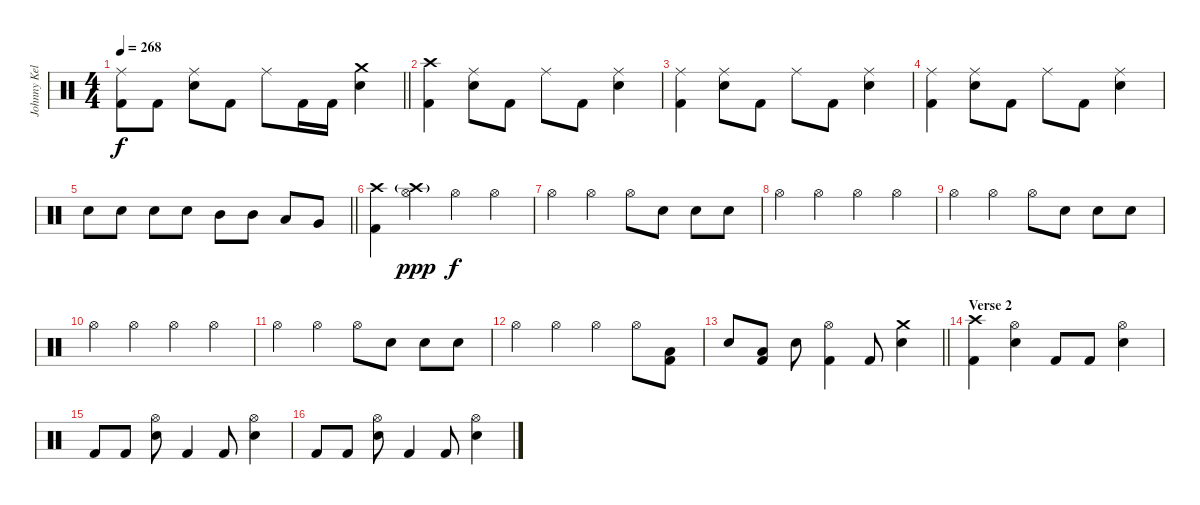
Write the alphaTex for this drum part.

\track ("Johnny Kelly" "Johnny Kel") {instrument percussion}
\staff {score}
\articulation defaults
\ts (4 4)
\tempo 268
\clef neutral
\barLineRight lightlight
\ks c
("Ride (middle)" "Kick (hit) 2").8{dy f} "Kick (hit) 2".8 ("Ride (middle)" "Electric Snare (hit)").8 "Kick (hit) 2".8 "Ride (middle)".8 "Kick (hit) 2".16 "Kick (hit) 2".16 ("Crash medium (hit)" "Electric Snare (hit)").4 |
("Crash high (hit)" "Kick (hit) 2").4 ("Ride (middle)" "Electric Snare (hit)").8 "Kick (hit) 2".8 "Ride (middle)".8 "Kick (hit) 2".8 ("Ride (middle)" "Electric Snare (hit)").4 |
("Ride (middle)" "Kick (hit) 2").4 ("Ride (middle)" "Electric Snare (hit)").8 "Kick (hit) 2".8 "Ride (middle)".8 "Kick (hit) 2".8 ("Ride (middle)" "Electric Snare (hit)").4 |
("Ride (middle)" "Kick (hit) 2").4 ("Ride (middle)" "Electric Snare (hit)").8 "Kick (hit) 2".8 "Ride (middle)".8 "Kick (hit) 2".8 ("Ride (middle)" "Electric Snare (hit)").4 |
\barLineRight lightlight "Electric Snare (hit)".8 "Electric Snare (hit)".8 "Electric Snare (hit)".8 "Electric Snare (hit)".8 "Mid Tom (hit)".8 "Mid Tom (hit)".8 "Low Tom (hit)".8 "Very Low Tom (hit)".8
|
\section ("" "")
("Crash high (hit)" "Kick (hit) 2").4 ("Hi-Hat (open)" "Crash high (hit)"{g}).4{dy ppp} "Hi-Hat (open)".4{dy f} "Hi-Hat (open)".4 |
"Hi-Hat (open)".4 "Hi-Hat (open)".4 "Hi-Hat (open)".8 "Electric Snare (hit)".8 "Electric Snare (hit)".8 "Electric Snare (hit)".8 |
"Hi-Hat (open)".4 "Hi-Hat (open)".4 "Hi-Hat (open)".4 "Hi-Hat (open)".4 |
"Hi-Hat (open)".4 "Hi-Hat (open)".4 "Hi-Hat (open)".8 "Electric Snare (hit)".8 "Electric Snare (hit)".8 "Electric Snare (hit)".8 |
"Hi-Hat (open)".4 "Hi-Hat (open)".4 "Hi-Hat (open)".4 "Hi-Hat (open)".4 |
"Hi-Hat (open)".4 "Hi-Hat (open)".4 "Hi-Hat (open)".8 "Electric Snare (hit)".8 "Electric Snare (hit)".8 "Electric Snare (hit)".8 |
"Hi-Hat (open)".4 "Hi-Hat (open)".4 "Hi-Hat (open)".4 "Hi-Hat (open)".8 ("Low Floor Tom (hit)" "Kick (hit) 2").8 |
\barLineRight lightlight "Electric Snare (hit)".8
("Low Floor Tom (hit)" "Kick (hit) 2").8 "Electric Snare (hit)".8 ("Hi-Hat (open)" "Kick (hit) 2").4 "Kick (hit) 2".8 ("Crash medium (hit)" "Electric Snare (hit)").4 |
\section ("" "Verse 2")
("Crash high (hit)" "Kick (hit) 2").4 ("Hi-Hat (open)" "Electric Snare (hit)").4 "Kick (hit) 2".8 "Kick (hit) 2".8 ("Hi-Hat (open)" "Electric Snare (hit)").4 |
"Kick (hit) 2".8 "Kick (hit) 2".8 ("Hi-Hat (open)" "Electric Snare (hit)").8 "Kick (hit) 2".4 "Kick (hit) 2".8 ("Hi-Hat (open)" "Electric Snare (hit)").4 |
"Kick (hit) 2".8 "Kick (hit) 2".8 ("Hi-Hat (open)" "Electric Snare (hit)").8 "Kick (hit) 2".4 "Kick (hit) 2".8 ("Hi-Hat (open)" "Electric Snare (hit)").4
